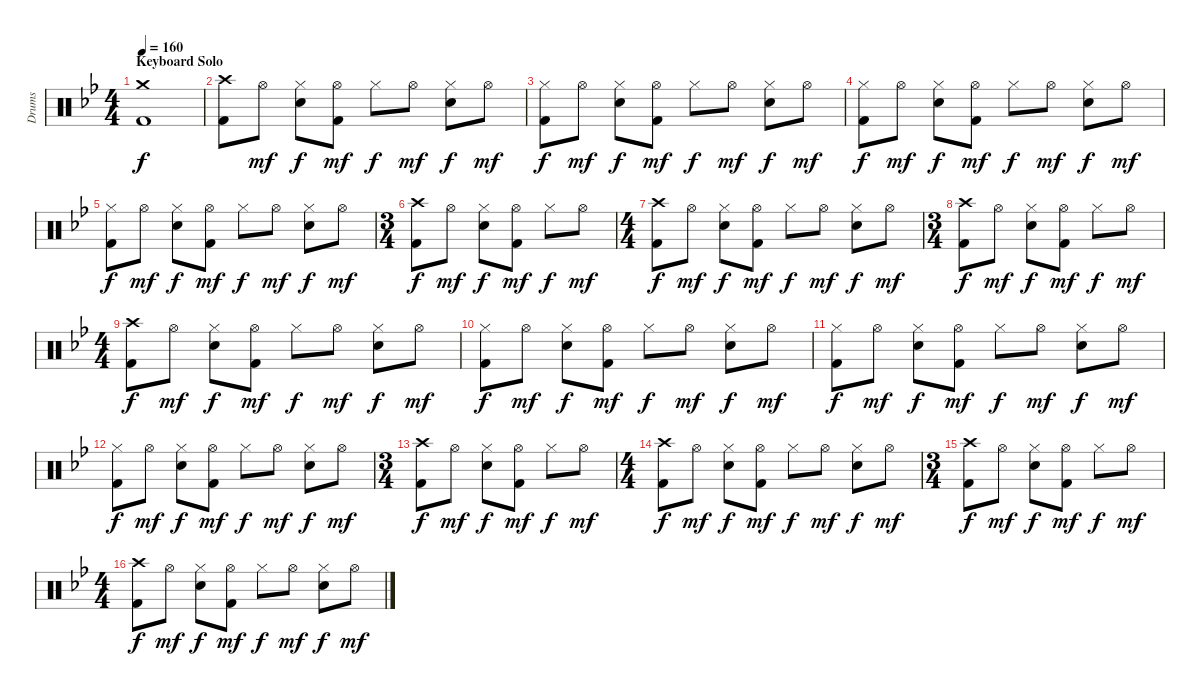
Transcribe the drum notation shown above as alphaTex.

\track ("Drums" "Drums") {instrument percussion}
\staff {score}
\articulation defaults
\ts (4 4)
\section ("" "Keyboard Solo")
\tempo 160
\clef neutral
\ks bb
("Crash medium (hit)" "Kick (hit) 2").1{dy f} |
("Crash high (hit)" "Kick (hit) 2").8 "Hi-Hat (open)".8{dy mf} ("Hi-Hat (closed)" "Electric Snare (hit)").8{dy f} ("Hi-Hat (open)" "Kick (hit) 2").8{dy mf} "Hi-Hat (closed)".8{dy f} "Hi-Hat (open)".8{dy mf} ("Hi-Hat (closed)" "Electric Snare (hit)").8{dy f} "Hi-Hat (open)".8{dy mf} |
("Hi-Hat (closed)" "Kick (hit) 2").8{dy f} "Hi-Hat (open)".8{dy mf} ("Hi-Hat (closed)" "Electric Snare (hit)").8{dy f} ("Hi-Hat (open)" "Kick (hit) 2").8{dy mf} "Hi-Hat (closed)".8{dy f} "Hi-Hat (open)".8{dy mf} ("Hi-Hat (closed)" "Electric Snare (hit)").8{dy f} "Hi-Hat (open)".8{dy mf} |
("Hi-Hat (closed)" "Kick (hit) 2").8{dy f} "Hi-Hat (open)".8{dy mf} ("Hi-Hat (closed)" "Electric Snare (hit)").8{dy f} ("Hi-Hat (open)" "Kick (hit) 2").8{dy mf} "Hi-Hat (closed)".8{dy f} "Hi-Hat (open)".8{dy mf} ("Hi-Hat (closed)" "Electric Snare (hit)").8{dy f} "Hi-Hat (open)".8{dy mf} |
("Hi-Hat (closed)" "Kick (hit) 2").8{dy f} "Hi-Hat (open)".8{dy mf} ("Hi-Hat (closed)" "Electric Snare (hit)").8{dy f} ("Hi-Hat (open)" "Kick (hit) 2").8{dy mf} "Hi-Hat (closed)".8{dy f} "Hi-Hat (open)".8{dy mf} ("Hi-Hat (closed)" "Electric Snare (hit)").8{dy f} "Hi-Hat (open)".8{dy mf} |
\ts (3 4)
("Crash high (hit)" "Kick (hit) 2").8{dy f} "Hi-Hat (open)".8{dy mf} ("Hi-Hat (closed)" "Electric Snare (hit)").8{dy f} ("Hi-Hat (open)" "Kick (hit) 2").8{dy mf} "Hi-Hat (closed)".8{dy f} "Hi-Hat (open)".8{dy mf} |
\ts (4 4)
("Crash high (hit)" "Kick (hit) 2").8{dy f} "Hi-Hat (open)".8{dy mf} ("Hi-Hat (closed)" "Electric Snare (hit)").8{dy f} ("Hi-Hat (open)" "Kick (hit) 2").8{dy mf} "Hi-Hat (closed)".8{dy f} "Hi-Hat (open)".8{dy mf} ("Hi-Hat (closed)" "Electric Snare (hit)").8{dy f} "Hi-Hat (open)".8{dy mf} |
\ts (3 4)
("Crash high (hit)" "Kick (hit) 2").8{dy f} "Hi-Hat (open)".8{dy mf} ("Hi-Hat (closed)" "Electric Snare (hit)").8{dy f} ("Hi-Hat (open)" "Kick (hit) 2").8{dy mf} "Hi-Hat (closed)".8{dy f} "Hi-Hat (open)".8{dy mf} |
\ts (4 4)
("Crash high (hit)" "Kick (hit) 2").8{dy f} "Hi-Hat (open)".8{dy mf} ("Hi-Hat (closed)" "Electric Snare (hit)").8{dy f} ("Hi-Hat (open)" "Kick (hit) 2").8{dy mf} "Hi-Hat (closed)".8{dy f} "Hi-Hat (open)".8{dy mf} ("Hi-Hat (closed)" "Electric Snare (hit)").8{dy f} "Hi-Hat (open)".8{dy mf} |
("Hi-Hat (closed)" "Kick (hit) 2").8{dy f} "Hi-Hat (open)".8{dy mf} ("Hi-Hat (closed)" "Electric Snare (hit)").8{dy f} ("Hi-Hat (open)" "Kick (hit) 2").8{dy mf} "Hi-Hat (closed)".8{dy f} "Hi-Hat (open)".8{dy mf} ("Hi-Hat (closed)" "Electric Snare (hit)").8{dy f} "Hi-Hat (open)".8{dy mf} |
("Hi-Hat (closed)" "Kick (hit) 2").8{dy f} "Hi-Hat (open)".8{dy mf} ("Hi-Hat (closed)" "Electric Snare (hit)").8{dy f} ("Hi-Hat (open)" "Kick (hit) 2").8{dy mf} "Hi-Hat (closed)".8{dy f} "Hi-Hat (open)".8{dy mf} ("Hi-Hat (closed)" "Electric Snare (hit)").8{dy f} "Hi-Hat (open)".8{dy mf} |
("Hi-Hat (closed)" "Kick (hit) 2").8{dy f} "Hi-Hat (open)".8{dy mf} ("Hi-Hat (closed)" "Electric Snare (hit)").8{dy f} ("Hi-Hat (open)" "Kick (hit) 2").8{dy mf} "Hi-Hat (closed)".8{dy f} "Hi-Hat (open)".8{dy mf} ("Hi-Hat (closed)" "Electric Snare (hit)").8{dy f} "Hi-Hat (open)".8{dy mf} |
\ts (3 4)
("Crash high (hit)" "Kick (hit) 2").8{dy f} "Hi-Hat (open)".8{dy mf} ("Hi-Hat (closed)" "Electric Snare (hit)").8{dy f} ("Hi-Hat (open)" "Kick (hit) 2").8{dy mf} "Hi-Hat (closed)".8{dy f} "Hi-Hat (open)".8{dy mf} |
\ts (4 4)
("Crash high (hit)" "Kick (hit) 2").8{dy f} "Hi-Hat (open)".8{dy mf} ("Hi-Hat (closed)" "Electric Snare (hit)").8{dy f} ("Hi-Hat (open)" "Kick (hit) 2").8{dy mf} "Hi-Hat (closed)".8{dy f} "Hi-Hat (open)".8{dy mf} ("Hi-Hat (closed)" "Electric Snare (hit)").8{dy f} "Hi-Hat (open)".8{dy mf} |
\ts (3 4)
("Crash high (hit)" "Kick (hit) 2").8{dy f} "Hi-Hat (open)".8{dy mf} ("Hi-Hat (closed)" "Electric Snare (hit)").8{dy f} ("Hi-Hat (open)" "Kick (hit) 2").8{dy mf} "Hi-Hat (closed)".8{dy f} "Hi-Hat (open)".8{dy mf} |
\ts (4 4)
("Crash high (hit)" "Kick (hit) 2").8{dy f} "Hi-Hat (open)".8{dy mf} ("Hi-Hat (closed)" "Electric Snare (hit)").8{dy f} ("Hi-Hat (open)" "Kick (hit) 2").8{dy mf} "Hi-Hat (closed)".8{dy f} "Hi-Hat (open)".8{dy mf} ("Hi-Hat (closed)" "Electric Snare (hit)").8{dy f} "Hi-Hat (open)".8{dy mf}
